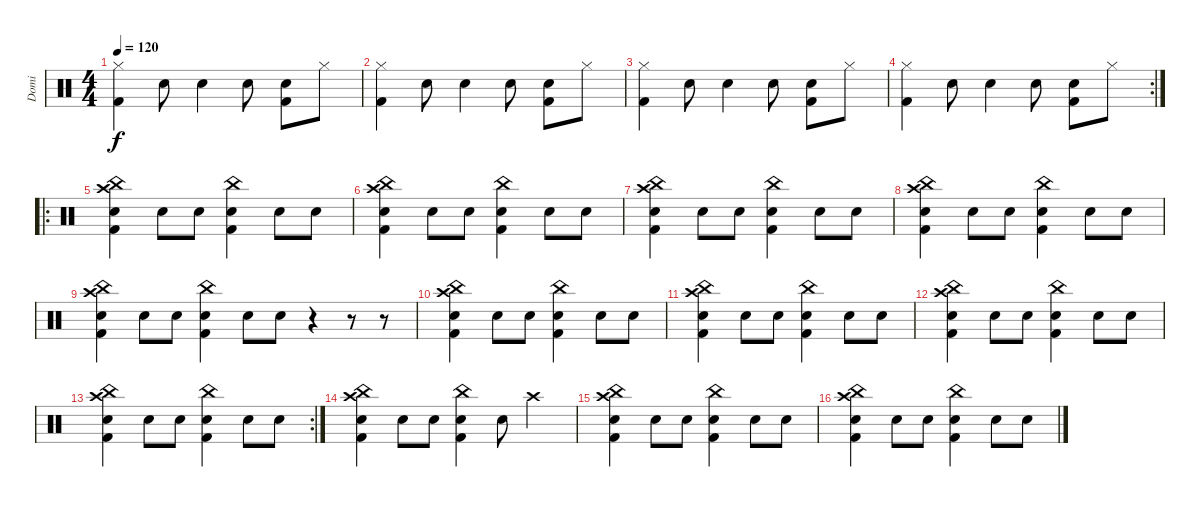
\track ("Domi" "Domi") {instrument percussion}
\staff {score}
\articulation defaults
\ts (4 4)
\tempo 120
\clef neutral
\ks c
("Hi-Hat (closed)" "Kick (hit) 2").4{dy f} "Snare (hit) 2".8 "Snare (hit) 2".4 "Snare (hit) 2".8 ("Snare (hit) 2" "Kick (hit) 2").8 "Hi-Hat (closed)".8 |
("Hi-Hat (closed)" "Kick (hit) 2").4 "Snare (hit) 2".8 "Snare (hit) 2".4 "Snare (hit) 2".8 ("Snare (hit) 2" "Kick (hit) 2").8 "Hi-Hat (closed)".8 |
("Hi-Hat (closed)" "Kick (hit) 2").4 "Snare (hit) 2".8 "Snare (hit) 2".4 "Snare (hit) 2".8 ("Snare (hit) 2" "Kick (hit) 2").8 "Hi-Hat (closed)".8 |
\rc 2
("Hi-Hat (closed)" "Kick (hit) 2").4 "Snare (hit) 2".8 "Snare (hit) 2".4 "Snare (hit) 2".8 ("Snare (hit) 2" "Kick (hit) 2").8 "Hi-Hat (closed)".8 |
\ro
("Crash high (hit)" "Snare (hit) 2" "Kick (hit) 2" "China (hit)").4 "Snare (hit) 2".8 "Snare (hit) 2".8 ("Snare (hit) 2" "Kick (hit) 2" "China (hit)").4 "Snare (hit) 2".8 "Snare (hit) 2".8 |
("Crash high (hit)" "Snare (hit) 2" "Kick (hit) 2" "China (hit)").4 "Snare (hit) 2".8 "Snare (hit) 2".8 ("Snare (hit) 2" "Kick (hit) 2" "China (hit)").4 "Snare (hit) 2".8 "Snare (hit) 2".8 |
("Crash high (hit)" "Snare (hit) 2" "Kick (hit) 2" "China (hit)").4 "Snare (hit) 2".8 "Snare (hit) 2".8 ("Snare (hit) 2" "Kick (hit) 2" "China (hit)").4 "Snare (hit) 2".8 "Snare (hit) 2".8 |
("Crash high (hit)" "Snare (hit) 2" "Kick (hit) 2" "China (hit)").4 "Snare (hit) 2".8 "Snare (hit) 2".8 ("Snare (hit) 2" "Kick (hit) 2" "China (hit)").4 "Snare (hit) 2".8 "Snare (hit) 2".8 |
("Crash high (hit)" "Snare (hit) 2" "Kick (hit) 2" "China (hit)").4 "Snare (hit) 2".8 "Snare (hit) 2".8 ("Snare (hit) 2" "Kick (hit) 2" "China (hit)").4 "Snare (hit) 2".8 "Snare (hit) 2".8 r.4 r.8 r.8 |
("Crash high (hit)" "Snare (hit) 2" "Kick (hit) 2" "China (hit)").4 "Snare (hit) 2".8 "Snare (hit) 2".8 ("Snare (hit) 2" "Kick (hit) 2" "China (hit)").4 "Snare (hit) 2".8 "Snare (hit) 2".8 |
("Crash high (hit)" "Snare (hit) 2" "Kick (hit) 2" "China (hit)").4 "Snare (hit) 2".8 "Snare (hit) 2".8 ("Snare (hit) 2" "Kick (hit) 2" "China (hit)").4 "Snare (hit) 2".8 "Snare (hit) 2".8 |
("Crash high (hit)" "Snare (hit) 2" "Kick (hit) 2" "China (hit)").4 "Snare (hit) 2".8 "Snare (hit) 2".8 ("Snare (hit) 2" "Kick (hit) 2" "China (hit)").4 "Snare (hit) 2".8 "Snare (hit) 2".8 |
\rc 2
("Crash high (hit)" "Snare (hit) 2" "Kick (hit) 2" "China (hit)").4 "Snare (hit) 2".8 "Snare (hit) 2".8 ("Snare (hit) 2" "Kick (hit) 2" "China (hit)").4 "Snare (hit) 2".8 "Snare (hit) 2".8 |
("Crash high (hit)" "Snare (hit) 2" "Kick (hit) 2" "China (hit)").4 "Snare (hit) 2".8 "Snare (hit) 2".8 ("Snare (hit) 2" "Kick (hit) 2" "China (hit)").4 "Snare (hit) 2".8 "Crash high (hit)".2 |
("Crash high (hit)" "Snare (hit) 2" "Kick (hit) 2" "China (hit)").4 "Snare (hit) 2".8 "Snare (hit) 2".8 ("Snare (hit) 2" "Kick (hit) 2" "China (hit)").4 "Snare (hit) 2".8 "Snare (hit) 2".8 |
("Crash high (hit)" "Snare (hit) 2" "Kick (hit) 2" "China (hit)").4 "Snare (hit) 2".8 "Snare (hit) 2".8 ("Snare (hit) 2" "Kick (hit) 2" "China (hit)").4 "Snare (hit) 2".8 "Snare (hit) 2".8
